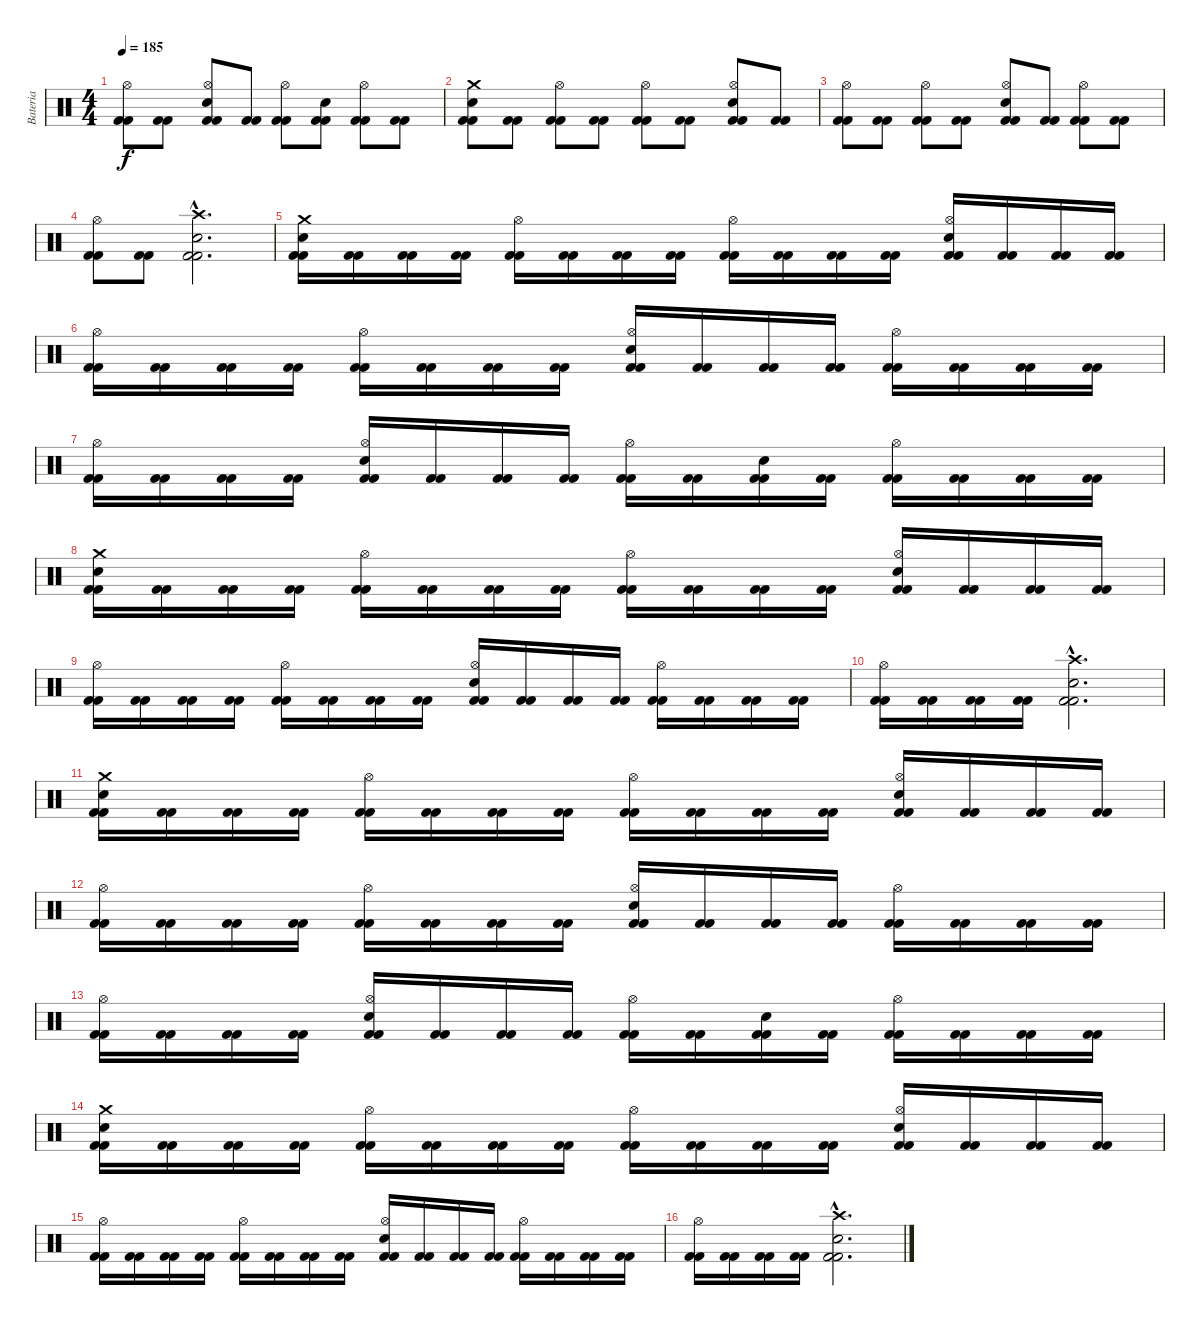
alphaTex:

\track ("Bateria" "Bateria") {instrument percussion}
\staff {score}
\articulation defaults
\ts (4 4)
\tempo 185
\clef neutral
\ks c
("Kick (hit) 2" "Kick (hit) 2" "Hi-Hat (open)").8{dy f} ("Kick (hit) 2" "Kick (hit) 2").8 ("Kick (hit) 2" "Kick (hit) 2" "Electric Snare (hit)" "Hi-Hat (open)").8 ("Kick (hit) 2" "Kick (hit) 2").8 ("Kick (hit) 2" "Kick (hit) 2" "Hi-Hat (open)").8 ("Kick (hit) 2" "Kick (hit) 2" "Electric Snare (hit)").8 ("Kick (hit) 2" "Kick (hit) 2" "Hi-Hat (open)").8 ("Kick (hit) 2" "Kick (hit) 2").8 |
("Kick (hit) 2" "Kick (hit) 2" "Electric Snare (hit)" "Crash medium (hit)").8 ("Kick (hit) 2" "Kick (hit) 2").8 ("Kick (hit) 2" "Kick (hit) 2" "Hi-Hat (open)").8 ("Kick (hit) 2" "Kick (hit) 2").8 ("Kick (hit) 2" "Kick (hit) 2" "Hi-Hat (open)").8 ("Kick (hit) 2" "Kick (hit) 2").8 ("Kick (hit) 2" "Kick (hit) 2" "Electric Snare (hit)" "Hi-Hat (open)").8 ("Kick (hit) 2" "Kick (hit) 2").8 |
("Kick (hit) 2" "Kick (hit) 2" "Hi-Hat (open)").8 ("Kick (hit) 2" "Kick (hit) 2").8 ("Kick (hit) 2" "Kick (hit) 2" "Hi-Hat (open)").8 ("Kick (hit) 2" "Kick (hit) 2").8 ("Kick (hit) 2" "Kick (hit) 2" "Electric Snare (hit)" "Hi-Hat (open)").8 ("Kick (hit) 2" "Kick (hit) 2").8 ("Kick (hit) 2" "Kick (hit) 2" "Hi-Hat (open)").8 ("Kick (hit) 2" "Kick (hit) 2").8 |
("Kick (hit) 2" "Kick (hit) 2" "Hi-Hat (open)").8 ("Kick (hit) 2" "Kick (hit) 2").8 ("Kick (hit) 2"{hac} "Kick (hit) 2"{hac} "Electric Snare (hit)"{hac} "Crash high (hit)"{hac}).2{d} |
("Kick (hit) 2" "Kick (hit) 2" "Electric Snare (hit)" "Crash medium (hit)").16 ("Kick (hit) 2" "Kick (hit) 2").16 ("Kick (hit) 2" "Kick (hit) 2").16 ("Kick (hit) 2" "Kick (hit) 2").16 ("Kick (hit) 2" "Kick (hit) 2" "Hi-Hat (open)").16 ("Kick (hit) 2" "Kick (hit) 2").16 ("Kick (hit) 2" "Kick (hit) 2").16 ("Kick (hit) 2" "Kick (hit) 2").16 ("Kick (hit) 2" "Kick (hit) 2" "Hi-Hat (open)").16 ("Kick (hit) 2" "Kick (hit) 2").16 ("Kick (hit) 2" "Kick (hit) 2").16 ("Kick (hit) 2" "Kick (hit) 2").16 ("Kick (hit) 2" "Kick (hit) 2" "Electric Snare (hit)" "Hi-Hat (open)").16 ("Kick (hit) 2" "Kick (hit) 2").16 ("Kick (hit) 2" "Kick (hit) 2").16 ("Kick (hit) 2" "Kick (hit) 2").16 |
("Kick (hit) 2" "Kick (hit) 2" "Hi-Hat (open)").16 ("Kick (hit) 2" "Kick (hit) 2").16 ("Kick (hit) 2" "Kick (hit) 2").16 ("Kick (hit) 2" "Kick (hit) 2").16 ("Kick (hit) 2" "Kick (hit) 2" "Hi-Hat (open)").16 ("Kick (hit) 2" "Kick (hit) 2").16 ("Kick (hit) 2" "Kick (hit) 2").16 ("Kick (hit) 2" "Kick (hit) 2").16 ("Kick (hit) 2" "Kick (hit) 2" "Electric Snare (hit)" "Hi-Hat (open)").16 ("Kick (hit) 2" "Kick (hit) 2").16 ("Kick (hit) 2" "Kick (hit) 2").16 ("Kick (hit) 2" "Kick (hit) 2").16 ("Kick (hit) 2" "Kick (hit) 2" "Hi-Hat (open)").16 ("Kick (hit) 2" "Kick (hit) 2").16 ("Kick (hit) 2" "Kick (hit) 2").16 ("Kick (hit) 2" "Kick (hit) 2").16 |
("Kick (hit) 2" "Kick (hit) 2" "Hi-Hat (open)").16 ("Kick (hit) 2" "Kick (hit) 2").16 ("Kick (hit) 2" "Kick (hit) 2").16 ("Kick (hit) 2" "Kick (hit) 2").16 ("Kick (hit) 2" "Kick (hit) 2" "Electric Snare (hit)" "Hi-Hat (open)").16 ("Kick (hit) 2" "Kick (hit) 2").16 ("Kick (hit) 2" "Kick (hit) 2").16 ("Kick (hit) 2" "Kick (hit) 2").16 ("Kick (hit) 2" "Kick (hit) 2" "Hi-Hat (open)").16 ("Kick (hit) 2" "Kick (hit) 2").16 ("Kick (hit) 2" "Kick (hit) 2" "Electric Snare (hit)").16 ("Kick (hit) 2" "Kick (hit) 2").16 ("Kick (hit) 2" "Kick (hit) 2" "Hi-Hat (open)").16 ("Kick (hit) 2" "Kick (hit) 2").16 ("Kick (hit) 2" "Kick (hit) 2").16 ("Kick (hit) 2" "Kick (hit) 2").16 |
("Kick (hit) 2" "Kick (hit) 2" "Electric Snare (hit)" "Crash medium (hit)").16 ("Kick (hit) 2" "Kick (hit) 2").16 ("Kick (hit) 2" "Kick (hit) 2").16 ("Kick (hit) 2" "Kick (hit) 2").16 ("Kick (hit) 2" "Kick (hit) 2" "Hi-Hat (open)").16 ("Kick (hit) 2" "Kick (hit) 2").16 ("Kick (hit) 2" "Kick (hit) 2").16 ("Kick (hit) 2" "Kick (hit) 2").16 ("Kick (hit) 2" "Kick (hit) 2" "Hi-Hat (open)").16 ("Kick (hit) 2" "Kick (hit) 2").16 ("Kick (hit) 2" "Kick (hit) 2").16 ("Kick (hit) 2" "Kick (hit) 2").16 ("Kick (hit) 2" "Kick (hit) 2" "Electric Snare (hit)" "Hi-Hat (open)").16 ("Kick (hit) 2" "Kick (hit) 2").16 ("Kick (hit) 2" "Kick (hit) 2").16 ("Kick (hit) 2" "Kick (hit) 2").16 |
("Kick (hit) 2" "Kick (hit) 2" "Hi-Hat (open)").16 ("Kick (hit) 2" "Kick (hit) 2").16 ("Kick (hit) 2" "Kick (hit) 2").16 ("Kick (hit) 2" "Kick (hit) 2").16 ("Kick (hit) 2" "Kick (hit) 2" "Hi-Hat (open)").16 ("Kick (hit) 2" "Kick (hit) 2").16 ("Kick (hit) 2" "Kick (hit) 2").16 ("Kick (hit) 2" "Kick (hit) 2").16 ("Kick (hit) 2" "Kick (hit) 2" "Electric Snare (hit)" "Hi-Hat (open)").16 ("Kick (hit) 2" "Kick (hit) 2").16 ("Kick (hit) 2" "Kick (hit) 2").16 ("Kick (hit) 2" "Kick (hit) 2").16 ("Kick (hit) 2" "Kick (hit) 2" "Hi-Hat (open)").16 ("Kick (hit) 2" "Kick (hit) 2").16 ("Kick (hit) 2" "Kick (hit) 2").16 ("Kick (hit) 2" "Kick (hit) 2").16 |
("Kick (hit) 2" "Kick (hit) 2" "Hi-Hat (open)").16 ("Kick (hit) 2" "Kick (hit) 2").16 ("Kick (hit) 2" "Kick (hit) 2").16 ("Kick (hit) 2" "Kick (hit) 2").16 ("Kick (hit) 2"{hac} "Kick (hit) 2"{hac} "Electric Snare (hit)"{hac} "Crash high (hit)"{hac}).2{d} |
("Kick (hit) 2" "Kick (hit) 2" "Electric Snare (hit)" "Crash medium (hit)").16 ("Kick (hit) 2" "Kick (hit) 2").16 ("Kick (hit) 2" "Kick (hit) 2").16 ("Kick (hit) 2" "Kick (hit) 2").16 ("Kick (hit) 2" "Kick (hit) 2" "Hi-Hat (open)").16 ("Kick (hit) 2" "Kick (hit) 2").16 ("Kick (hit) 2" "Kick (hit) 2").16 ("Kick (hit) 2" "Kick (hit) 2").16 ("Kick (hit) 2" "Kick (hit) 2" "Hi-Hat (open)").16 ("Kick (hit) 2" "Kick (hit) 2").16 ("Kick (hit) 2" "Kick (hit) 2").16 ("Kick (hit) 2" "Kick (hit) 2").16 ("Kick (hit) 2" "Kick (hit) 2" "Electric Snare (hit)" "Hi-Hat (open)").16 ("Kick (hit) 2" "Kick (hit) 2").16 ("Kick (hit) 2" "Kick (hit) 2").16 ("Kick (hit) 2" "Kick (hit) 2").16 |
("Kick (hit) 2" "Kick (hit) 2" "Hi-Hat (open)").16 ("Kick (hit) 2" "Kick (hit) 2").16 ("Kick (hit) 2" "Kick (hit) 2").16 ("Kick (hit) 2" "Kick (hit) 2").16 ("Kick (hit) 2" "Kick (hit) 2" "Hi-Hat (open)").16 ("Kick (hit) 2" "Kick (hit) 2").16 ("Kick (hit) 2" "Kick (hit) 2").16 ("Kick (hit) 2" "Kick (hit) 2").16 ("Kick (hit) 2" "Kick (hit) 2" "Electric Snare (hit)" "Hi-Hat (open)").16 ("Kick (hit) 2" "Kick (hit) 2").16 ("Kick (hit) 2" "Kick (hit) 2").16 ("Kick (hit) 2" "Kick (hit) 2").16 ("Kick (hit) 2" "Kick (hit) 2" "Hi-Hat (open)").16 ("Kick (hit) 2" "Kick (hit) 2").16 ("Kick (hit) 2" "Kick (hit) 2").16 ("Kick (hit) 2" "Kick (hit) 2").16 |
("Kick (hit) 2" "Kick (hit) 2" "Hi-Hat (open)").16 ("Kick (hit) 2" "Kick (hit) 2").16 ("Kick (hit) 2" "Kick (hit) 2").16 ("Kick (hit) 2" "Kick (hit) 2").16 ("Kick (hit) 2" "Kick (hit) 2" "Electric Snare (hit)" "Hi-Hat (open)").16 ("Kick (hit) 2" "Kick (hit) 2").16 ("Kick (hit) 2" "Kick (hit) 2").16 ("Kick (hit) 2" "Kick (hit) 2").16 ("Kick (hit) 2" "Kick (hit) 2" "Hi-Hat (open)").16 ("Kick (hit) 2" "Kick (hit) 2").16 ("Kick (hit) 2" "Kick (hit) 2" "Electric Snare (hit)").16 ("Kick (hit) 2" "Kick (hit) 2").16 ("Kick (hit) 2" "Kick (hit) 2" "Hi-Hat (open)").16 ("Kick (hit) 2" "Kick (hit) 2").16 ("Kick (hit) 2" "Kick (hit) 2").16 ("Kick (hit) 2" "Kick (hit) 2").16 |
("Kick (hit) 2" "Kick (hit) 2" "Electric Snare (hit)" "Crash medium (hit)").16 ("Kick (hit) 2" "Kick (hit) 2").16 ("Kick (hit) 2" "Kick (hit) 2").16 ("Kick (hit) 2" "Kick (hit) 2").16 ("Kick (hit) 2" "Kick (hit) 2" "Hi-Hat (open)").16 ("Kick (hit) 2" "Kick (hit) 2").16 ("Kick (hit) 2" "Kick (hit) 2").16 ("Kick (hit) 2" "Kick (hit) 2").16 ("Kick (hit) 2" "Kick (hit) 2" "Hi-Hat (open)").16 ("Kick (hit) 2" "Kick (hit) 2").16 ("Kick (hit) 2" "Kick (hit) 2").16 ("Kick (hit) 2" "Kick (hit) 2").16 ("Kick (hit) 2" "Kick (hit) 2" "Electric Snare (hit)" "Hi-Hat (open)").16 ("Kick (hit) 2" "Kick (hit) 2").16 ("Kick (hit) 2" "Kick (hit) 2").16 ("Kick (hit) 2" "Kick (hit) 2").16 |
("Kick (hit) 2" "Kick (hit) 2" "Hi-Hat (open)").16 ("Kick (hit) 2" "Kick (hit) 2").16 ("Kick (hit) 2" "Kick (hit) 2").16 ("Kick (hit) 2" "Kick (hit) 2").16 ("Kick (hit) 2" "Kick (hit) 2" "Hi-Hat (open)").16 ("Kick (hit) 2" "Kick (hit) 2").16 ("Kick (hit) 2" "Kick (hit) 2").16 ("Kick (hit) 2" "Kick (hit) 2").16 ("Kick (hit) 2" "Kick (hit) 2" "Electric Snare (hit)" "Hi-Hat (open)").16 ("Kick (hit) 2" "Kick (hit) 2").16 ("Kick (hit) 2" "Kick (hit) 2").16 ("Kick (hit) 2" "Kick (hit) 2").16 ("Kick (hit) 2" "Kick (hit) 2" "Hi-Hat (open)").16 ("Kick (hit) 2" "Kick (hit) 2").16 ("Kick (hit) 2" "Kick (hit) 2").16 ("Kick (hit) 2" "Kick (hit) 2").16 |
("Kick (hit) 2" "Kick (hit) 2" "Hi-Hat (open)").16 ("Kick (hit) 2" "Kick (hit) 2").16 ("Kick (hit) 2" "Kick (hit) 2").16 ("Kick (hit) 2" "Kick (hit) 2").16 ("Kick (hit) 2"{hac} "Kick (hit) 2"{hac} "Electric Snare (hit)"{hac} "Crash high (hit)"{hac}).2{d}
